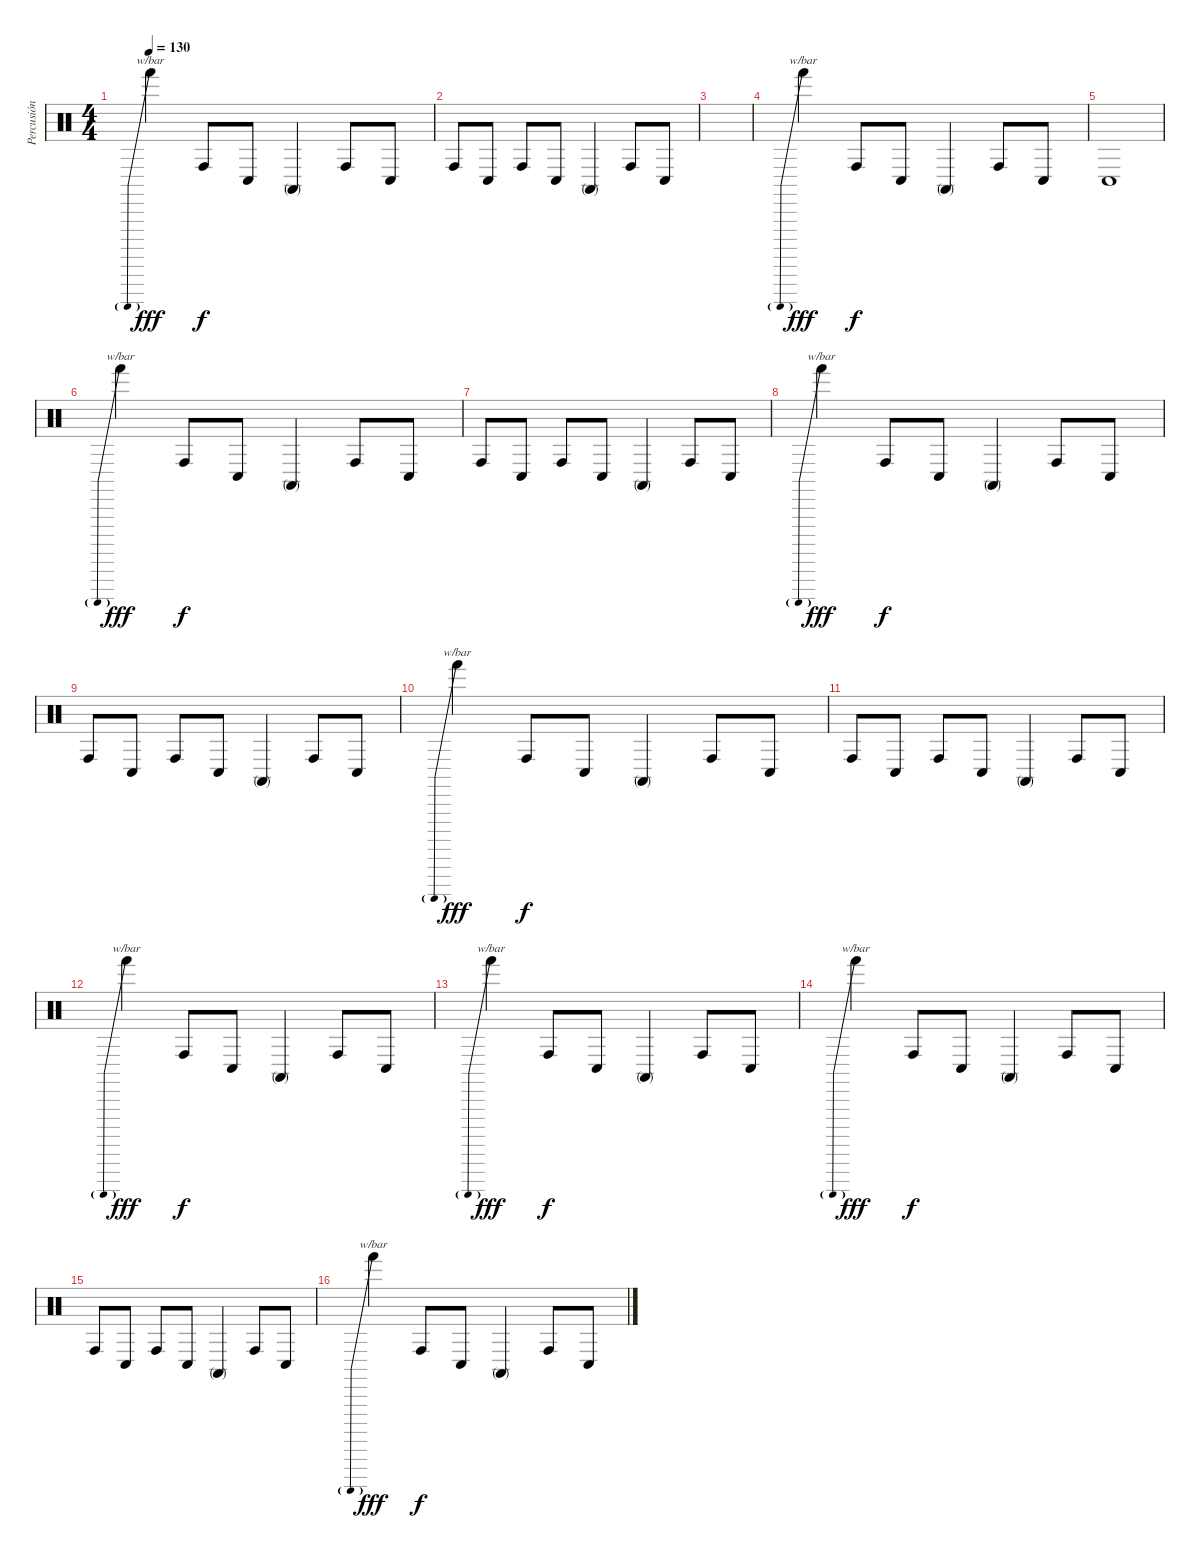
\track ("Percusión" "Percusión") {instrument percussion}
\staff {score}
\articulation defaults
\ts (4 4)
\tempo 130
\clef neutral
\ks c "Hand (hit)".4{tbe (predive default 0 -8 60 -8) dy fff} "Conga high (hit)".8{dy f} "Conga low (hit)".8 "Conga high (mute)".4 "Conga high (hit)".8 "Conga low (hit)".8
|
"Conga high (hit)".8 "Conga low (hit)".8 "Conga high (hit)".8 "Conga low (hit)".8 "Conga high (mute)".4 "Conga high (hit)".8 "Conga low (hit)".8 |
|
"Hand (hit)".4{tbe (predive default 0 -8 60 -8) dy fff} "Conga high (hit)".8{dy f} "Conga low (hit)".8 "Conga high (mute)".4 "Conga high (hit)".8 "Conga low (hit)".8 |
"Conga low (hit)".1 |
"Hand (hit)".4{tbe (predive default 0 -8 60 -8) dy fff} "Conga high (hit)".8{dy f} "Conga low (hit)".8 "Conga high (mute)".4 "Conga high (hit)".8 "Conga low (hit)".8 |
"Conga high (hit)".8 "Conga low (hit)".8 "Conga high (hit)".8 "Conga low (hit)".8 "Conga high (mute)".4 "Conga high (hit)".8 "Conga low (hit)".8 |
"Hand (hit)".4{tbe (predive default 0 -8 60 -8) dy fff} "Conga high (hit)".8{dy f} "Conga low (hit)".8 "Conga high (mute)".4 "Conga high (hit)".8 "Conga low (hit)".8 |
"Conga high (hit)".8 "Conga low (hit)".8 "Conga high (hit)".8 "Conga low (hit)".8 "Conga high (mute)".4 "Conga high (hit)".8 "Conga low (hit)".8 |
"Hand (hit)".4{tbe (predive default 0 -8 60 -8) dy fff} "Conga high (hit)".8{dy f} "Conga low (hit)".8 "Conga high (mute)".4 "Conga high (hit)".8 "Conga low (hit)".8 |
"Conga high (hit)".8 "Conga low (hit)".8 "Conga high (hit)".8 "Conga low (hit)".8 "Conga high (mute)".4 "Conga high (hit)".8 "Conga low (hit)".8 |
"Hand (hit)".4{tbe (predive default 0 -8 60 -8) dy fff} "Conga high (hit)".8{dy f} "Conga low (hit)".8 "Conga high (mute)".4 "Conga high (hit)".8 "Conga low (hit)".8 |
"Hand (hit)".4{tbe (predive default 0 -8 60 -8) dy fff} "Conga high (hit)".8{dy f} "Conga low (hit)".8 "Conga high (mute)".4 "Conga high (hit)".8 "Conga low (hit)".8 |
"Hand (hit)".4{tbe (predive default 0 -8 60 -8) dy fff} "Conga high (hit)".8{dy f} "Conga low (hit)".8 "Conga high (mute)".4 "Conga high (hit)".8 "Conga low (hit)".8 |
"Conga high (hit)".8 "Conga low (hit)".8 "Conga high (hit)".8 "Conga low (hit)".8 "Conga high (mute)".4 "Conga high (hit)".8 "Conga low (hit)".8 |
"Hand (hit)".4{tbe (predive default 0 -8 60 -8) dy fff} "Conga high (hit)".8{dy f} "Conga low (hit)".8 "Conga high (mute)".4 "Conga high (hit)".8 "Conga low (hit)".8
